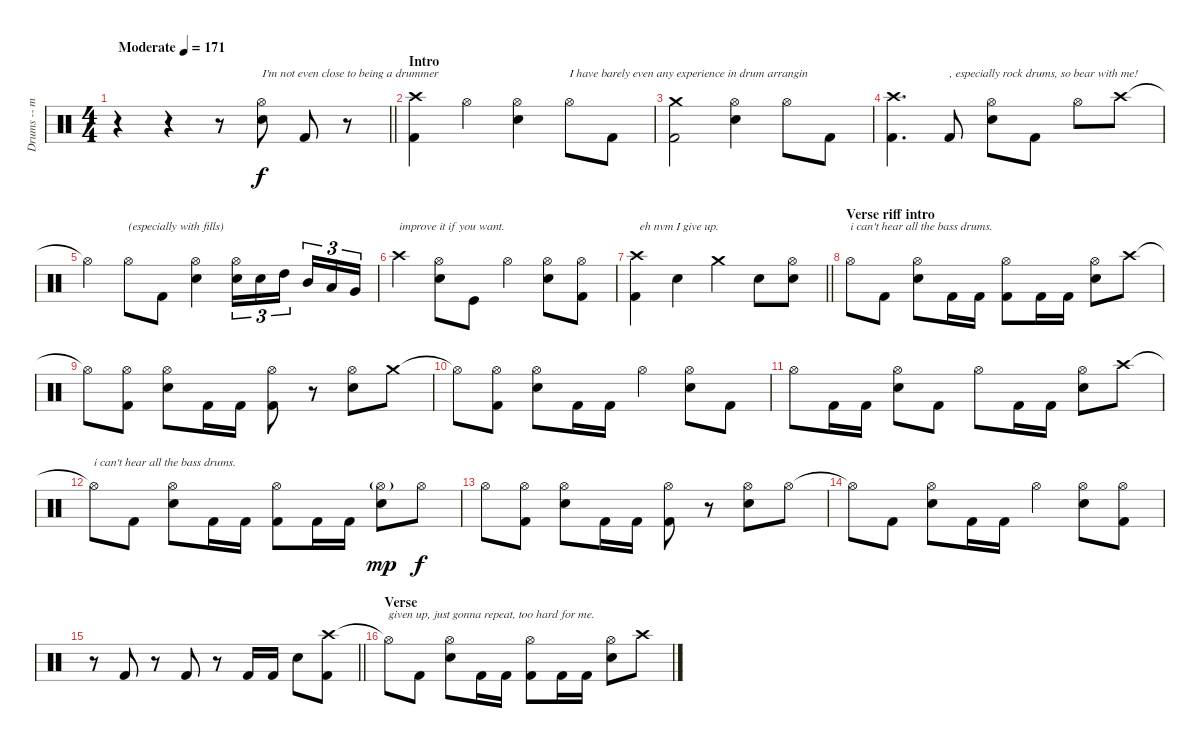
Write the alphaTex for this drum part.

\track ("Drums -- mostly wrong" "Drums -- m") {instrument percussion}
\staff {score}
\articulation defaults
\ts (4 4)
\tempo (171 "Moderate")
\clef neutral
\barLineRight lightlight
\ks c
r.4{dy f} r.4 r.8 ("Hi-Hat (open)" "Electric Snare (hit)").8{txt "I'm not even close to being a drummer"} "Kick (hit) 2".8 r.8 |
\section ("" "Intro")
("Crash high (hit)" "Kick (hit) 2").4 "Hi-Hat (open)".4 ("Hi-Hat (open)" "Electric Snare (hit)").4 "Hi-Hat (open)".8{txt "I have barely even any experience in drum arrangin"} "Kick (hit) 2".8 |
("Crash medium (hit)" "Kick (hit) 2").2 ("Hi-Hat (open)" "Electric Snare (hit)").4 "Hi-Hat (open)".8 "Kick (hit) 2".8 |
("Crash high (hit)" "Kick (hit) 2").4{d} "Kick (hit) 2".8{txt ", especially rock drums, so bear with me!"} ("Hi-Hat (open)" "Electric Snare (hit)").8 "Kick (hit) 2".8 "Hi-Hat (open)".8 "Crash high (hit)".8 |
"Hi-Hat (open)"{t}.4 "Hi-Hat (open)".8{txt "(especially with fills)"} "Kick (hit) 2".8 ("Hi-Hat (open)" "Electric Snare (hit)").4 ("Hi-Hat (open)" "Electric Snare (hit)").16{tu (3 2)} "Electric Snare (hit)".16{tu (3 2)} "High Tom (hit)".16{tu (3 2) beam splitsecondary} "Mid Tom (hit)".16{tu (3 2)} "Low Tom (hit)".16{tu (3 2)} "Very Low Tom (hit)".16{tu (3 2)} |
"Crash high (hit)".4{txt "improve it if you want."} ("Hi-Hat (open)" "Electric Snare (hit)").8 "Kick (hit)".8 "Hi-Hat (open)".4 ("Hi-Hat (open)" "Electric Snare (hit)").8 ("Hi-Hat (open)" "Kick (hit) 2").8 |
\barLineRight lightlight
("Crash high (hit)" "Kick (hit) 2").4{txt " eh nvm I give up."} "Electric Snare (hit)".4 "Crash medium (hit)".4 "Electric Snare (hit)".8 ("Hi-Hat (open)" "Electric Snare (hit)").8 |
\section ("" "Verse riff intro")
"Hi-Hat (open)".8{txt "i can't hear all the bass drums."} "Kick (hit) 2".8 ("Hi-Hat (open)" "Electric Snare (hit)").8 "Kick (hit) 2".16 "Kick (hit) 2".16 ("Hi-Hat (open)" "Kick (hit) 2").8 "Kick (hit) 2".16 "Kick (hit) 2".16 ("Hi-Hat (open)" "Electric Snare (hit)").8 "Crash high (hit)".8 |
"Hi-Hat (open)"{t}.8 ("Hi-Hat (open)" "Kick (hit) 2").8 ("Hi-Hat (open)" "Electric Snare (hit)").8 "Kick (hit) 2".16 "Kick (hit) 2".16 ("Hi-Hat (open)" "Kick (hit) 2").8 r.8 ("Hi-Hat (open)" "Electric Snare (hit)").8 "Crash medium (hit)".8 |
"Hi-Hat (open)"{t}.8 ("Hi-Hat (open)" "Kick (hit) 2").8 ("Hi-Hat (open)" "Electric Snare (hit)").8 "Kick (hit) 2".16 "Kick (hit) 2".16 "Hi-Hat (open)".4 ("Hi-Hat (open)" "Electric Snare (hit)").8 "Kick (hit) 2".8 |
"Hi-Hat (open)".8 "Kick (hit) 2".16 "Kick (hit) 2".16 ("Hi-Hat (open)" "Electric Snare (hit)").8 "Kick (hit) 2".8 "Hi-Hat (open)".8 "Kick (hit) 2".16 "Kick (hit) 2".16 ("Hi-Hat (open)" "Electric Snare (hit)").8 "Crash high (hit)".8 |
"Hi-Hat (open)"{t}.8{txt "i can't hear all the bass drums."} "Kick (hit) 2".8 ("Hi-Hat (open)" "Electric Snare (hit)").8 "Kick (hit) 2".16 "Kick (hit) 2".16 ("Hi-Hat (open)" "Kick (hit) 2").8 "Kick (hit) 2".16 "Kick (hit) 2".16 ("Hi-Hat (open)"{g} "Electric Snare (hit)").8{dy mp} "Hi-Hat (open)".8{dy f} |
"Hi-Hat (open)".8 ("Hi-Hat (open)" "Kick (hit) 2").8 ("Hi-Hat (open)" "Electric Snare (hit)").8 "Kick (hit) 2".16 "Kick (hit) 2".16 ("Hi-Hat (open)" "Kick (hit) 2").8 r.8 ("Hi-Hat (open)" "Electric Snare (hit)").8 "Hi-Hat (open)".8 |
"Hi-Hat (open)"{t}.8 "Kick (hit) 2".8 ("Hi-Hat (open)" "Electric Snare (hit)").8 "Kick (hit) 2".16 "Kick (hit) 2".16 "Hi-Hat (open)".4 ("Hi-Hat (open)" "Electric Snare (hit)").8 ("Hi-Hat (open)" "Kick (hit) 2").8 |
\barLineRight lightlight
r.8 "Kick (hit) 2".8 r.8 "Kick (hit) 2".8 r.8 "Kick (hit) 2".16 "Kick (hit) 2".16 "Electric Snare (hit)".8 ("Crash high (hit)" "Kick (hit) 2").8 |
\section ("" "Verse ")
"Hi-Hat (open)"{t}.8{txt "given up, just gonna repeat, too hard for me."} "Kick (hit) 2".8 ("Hi-Hat (open)" "Electric Snare (hit)").8 "Kick (hit) 2".16 "Kick (hit) 2".16 ("Hi-Hat (open)" "Kick (hit) 2").8 "Kick (hit) 2".16 "Kick (hit) 2".16 ("Hi-Hat (open)" "Electric Snare (hit)").8 "Crash high (hit)".8
